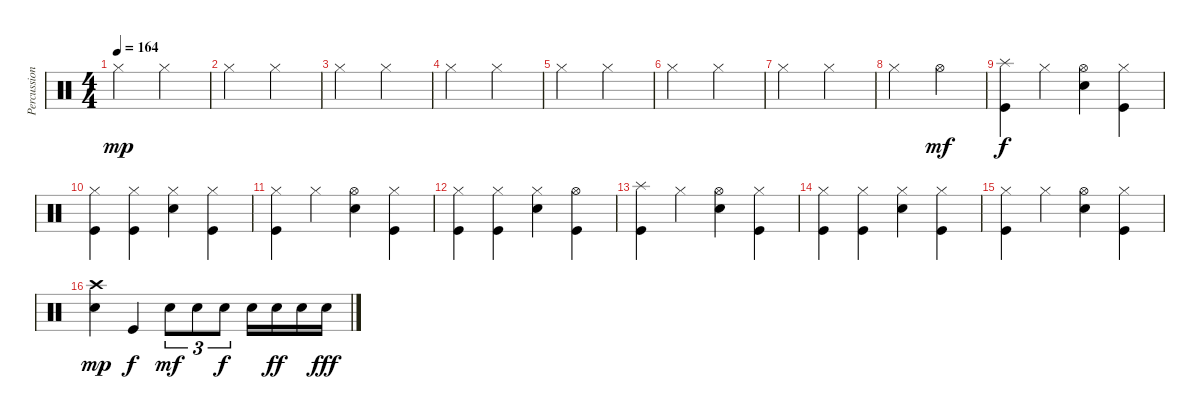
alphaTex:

\track ("Percussion" "Percussion") {instrument percussion}
\staff {score}
\articulation defaults
\ts (4 4)
\tempo 164
\clef neutral
\ks c "Hi-Hat (closed)".2{dy mp} "Hi-Hat (closed)".2
|
"Hi-Hat (closed)".2 "Hi-Hat (closed)".2 |
"Hi-Hat (closed)".2 "Hi-Hat (closed)".2 |
"Hi-Hat (closed)".2 "Hi-Hat (closed)".2 |
"Hi-Hat (closed)".2 "Hi-Hat (closed)".2 |
"Hi-Hat (closed)".2 "Hi-Hat (closed)".2 |
"Hi-Hat (closed)".2 "Hi-Hat (closed)".2 |
"Hi-Hat (closed)".2 "Hi-Hat (open)".2{dy mf} |
("Splash (hit)" "Kick (hit)").4{dy f} "Hi-Hat (closed)".4 ("Hi-Hat (open)" "Electric Snare (hit)").4 ("Hi-Hat (closed)" "Kick (hit)").4 |
("Hi-Hat (closed)" "Kick (hit)").4 ("Hi-Hat (closed)" "Kick (hit)").4 ("Hi-Hat (closed)" "Electric Snare (hit)").4 ("Hi-Hat (closed)" "Kick (hit)").4 |
("Hi-Hat (closed)" "Kick (hit)").4 "Hi-Hat (closed)".4 ("Hi-Hat (open)" "Electric Snare (hit)").4 ("Hi-Hat (closed)" "Kick (hit)").4 |
("Hi-Hat (closed)" "Kick (hit)").4 ("Hi-Hat (closed)" "Kick (hit)").4 ("Hi-Hat (closed)" "Electric Snare (hit)").4 ("Hi-Hat (open)" "Kick (hit)").4 |
("Splash (hit)" "Kick (hit)").4 "Hi-Hat (closed)".4 ("Hi-Hat (open)" "Electric Snare (hit)").4 ("Hi-Hat (closed)" "Kick (hit)").4 |
("Hi-Hat (closed)" "Kick (hit)").4 ("Hi-Hat (closed)" "Kick (hit)").4 ("Hi-Hat (closed)" "Electric Snare (hit)").4 ("Hi-Hat (closed)" "Kick (hit)").4 |
("Hi-Hat (closed)" "Kick (hit)").4 "Hi-Hat (closed)".4 ("Hi-Hat (open)" "Electric Snare (hit)").4 ("Hi-Hat (closed)" "Kick (hit)").4 |
("Crash high (hit)" "Electric Snare (hit)").4{dy mp} "Kick (hit)".4{dy f} "Electric Snare (hit)".8{tu (3 2) dy mf} "Electric Snare (hit)".8{tu (3 2)} "Electric Snare (hit)".8{tu (3 2) dy f} "Electric Snare (hit)".16 "Electric Snare (hit)".16{dy ff} "Electric Snare (hit)".16 "Electric Snare (hit)".16{dy fff}
